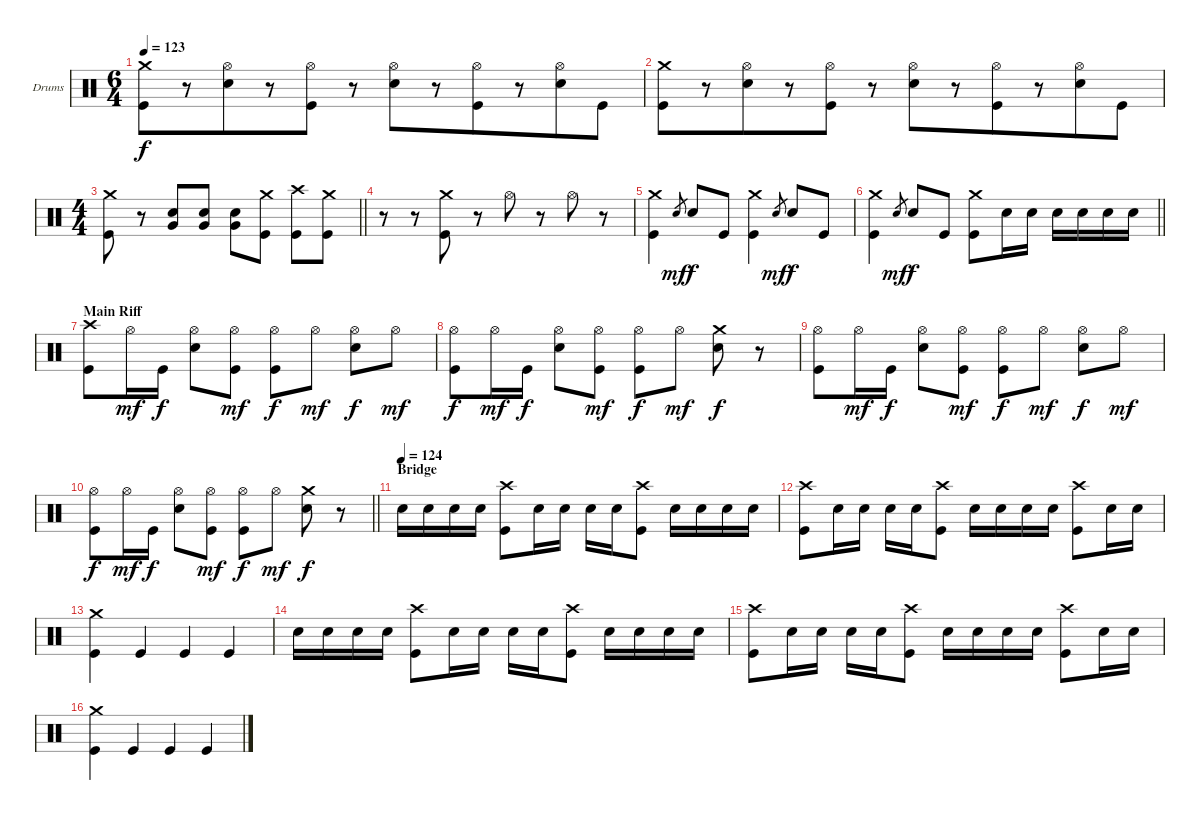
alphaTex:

\bracketExtendMode groupsimilarinstruments
\firstSystemTrackNameOrientation horizontal
\otherSystemsTrackNameOrientation horizontal
\track ("Drumkit" "Drums") {instrument percussion}
\staff {score}
\articulation defaults
\ts (6 4)
\beaming (8 6 6)
\tempo 123
\clef neutral
\ks c
("Crash medium (hit)" "Kick (hit)").8{dy f} r.8 ("Hi-Hat (open)" "Snare (hit) 2").8 r.8 ("Hi-Hat (open)" "Kick (hit)").8 r.8 ("Hi-Hat (open)" "Snare (hit) 2").8 r.8 ("Hi-Hat (open)" "Kick (hit)").8 r.8 ("Hi-Hat (open)" "Snare (hit) 2").8 "Kick (hit)".8 |
("Crash medium (hit)" "Kick (hit)").8 r.8 ("Hi-Hat (open)" "Snare (hit) 2").8 r.8 ("Hi-Hat (open)" "Kick (hit)").8 r.8 ("Hi-Hat (open)" "Snare (hit) 2").8 r.8 ("Hi-Hat (open)" "Kick (hit)").8 r.8 ("Hi-Hat (open)" "Snare (hit) 2").8 "Kick (hit)".8 |
\ts (4 4)
\beaming (8 2 2 2 2)
\barLineRight lightlight
("Crash medium (hit)" "Kick (hit)").8 r.8 ("Very Low Tom (hit)" "Snare (hit) 2").8 ("Very Low Tom (hit)" "Snare (hit) 2").8 ("Very Low Tom (hit)" "Snare (hit) 2").8 ("Crash medium (hit)" "Kick (hit)").8 ("Crash high (hit)" "Kick (hit)").8 ("Crash medium (hit)" "Kick (hit)").8 |
r.8 r.8 ("Crash medium (hit)" "Kick (hit)").8 r.8 "Hi-Hat (open)".8 r.8 "Hi-Hat (open)".8 r.8 |
("Crash medium (hit)" "Kick (hit)").4 "Snare (hit) 2".8{gr dy mf} "Snare (hit) 2".8{dy f} "Kick (hit)".8 ("Crash medium (hit)" "Kick (hit)").4 "Snare (hit) 2".8{gr dy mf} "Snare (hit) 2".8{dy f} "Kick (hit)".8 |
\barLineRight lightlight
("Crash medium (hit)" "Kick (hit)").4 "Snare (hit) 2".8{gr dy mf} "Snare (hit) 2".8{dy f} "Kick (hit)".8 ("Crash medium (hit)" "Kick (hit)").8 "Snare (hit) 2".16 "Snare (hit) 2".16 "Snare (hit) 2".16 "Snare (hit) 2".16 "Snare (hit) 2".16 "Snare (hit) 2".16 |
\section ("" "Main Riff")
("Crash high (hit)" "Kick (hit)").8 "Hi-Hat (open)".16{dy mf} "Kick (hit)".16{dy f} ("Hi-Hat (open)" "Snare (hit) 2").8 ("Hi-Hat (open)" "Kick (hit)").8{dy mf} ("Hi-Hat (open)" "Kick (hit)").8{dy f} "Hi-Hat (open)".8{dy mf} ("Hi-Hat (open)" "Snare (hit) 2").8{dy f} "Hi-Hat (open)".8{dy mf} |
("Hi-Hat (open)" "Kick (hit)").8{dy f} "Hi-Hat (open)".16{dy mf} "Kick (hit)".16{dy f} ("Hi-Hat (open)" "Snare (hit) 2").8 ("Hi-Hat (open)" "Kick (hit)").8{dy mf} ("Hi-Hat (open)" "Kick (hit)").8{dy f} "Hi-Hat (open)".8{dy mf} ("Crash medium (hit)" "Snare (hit) 2").8{dy f} r.8 |
("Hi-Hat (open)" "Kick (hit)").8 "Hi-Hat (open)".16{dy mf} "Kick (hit)".16{dy f} ("Hi-Hat (open)" "Snare (hit) 2").8 ("Hi-Hat (open)" "Kick (hit)").8{dy mf} ("Hi-Hat (open)" "Kick (hit)").8{dy f} "Hi-Hat (open)".8{dy mf} ("Hi-Hat (open)" "Snare (hit) 2").8{dy f} "Hi-Hat (open)".8{dy mf} |
\barLineRight lightlight
("Hi-Hat (open)" "Kick (hit)").8{dy f} "Hi-Hat (open)".16{dy mf} "Kick (hit)".16{dy f} ("Hi-Hat (open)" "Snare (hit) 2").8 ("Hi-Hat (open)" "Kick (hit)").8{dy mf} ("Hi-Hat (open)" "Kick (hit)").8{dy f} "Hi-Hat (open)".8{dy mf} ("Crash medium (hit)" "Snare (hit) 2").8{dy f} r.8 |
\section ("" "Bridge")
\tempo (124)
"Snare (hit) 2".16 "Snare (hit) 2".16 "Snare (hit) 2".16 "Snare (hit) 2".16 ("Crash high (hit)" "Kick (hit)").8 "Snare (hit) 2".16 "Snare (hit) 2".16 "Snare (hit) 2".16 "Snare (hit) 2".16 ("Crash high (hit)" "Kick (hit)").8 "Snare (hit) 2".16 "Snare (hit) 2".16 "Snare (hit) 2".16 "Snare (hit) 2".16 |
("Crash high (hit)" "Kick (hit)").8 "Snare (hit) 2".16 "Snare (hit) 2".16 "Snare (hit) 2".16 "Snare (hit) 2".16 ("Crash high (hit)" "Kick (hit)").8 "Snare (hit) 2".16 "Snare (hit) 2".16 "Snare (hit) 2".16 "Snare (hit) 2".16 ("Crash high (hit)" "Kick (hit)").8 "Snare (hit) 2".16 "Snare (hit) 2".16 |
("Crash medium (hit)" "Kick (hit)").4 "Kick (hit)".4 "Kick (hit)".4 "Kick (hit)".4 |
"Snare (hit) 2".16 "Snare (hit) 2".16 "Snare (hit) 2".16 "Snare (hit) 2".16 ("Crash high (hit)" "Kick (hit)").8 "Snare (hit) 2".16 "Snare (hit) 2".16 "Snare (hit) 2".16 "Snare (hit) 2".16 ("Crash high (hit)" "Kick (hit)").8 "Snare (hit) 2".16 "Snare (hit) 2".16 "Snare (hit) 2".16 "Snare (hit) 2".16 |
("Crash high (hit)" "Kick (hit)").8 "Snare (hit) 2".16 "Snare (hit) 2".16 "Snare (hit) 2".16 "Snare (hit) 2".16 ("Crash high (hit)" "Kick (hit)").8 "Snare (hit) 2".16 "Snare (hit) 2".16 "Snare (hit) 2".16 "Snare (hit) 2".16 ("Crash high (hit)" "Kick (hit)").8 "Snare (hit) 2".16 "Snare (hit) 2".16 |
("Crash medium (hit)" "Kick (hit)").4 "Kick (hit)".4 "Kick (hit)".4 "Kick (hit)".4
